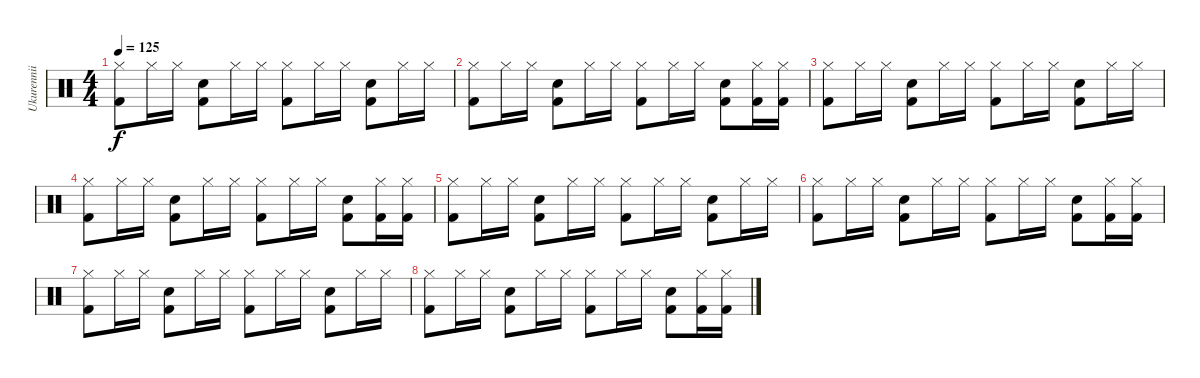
\track ("Ukurennii Drums" "Ukurennii ") {instrument percussion}
\staff {score}
\articulation defaults
\ts (4 4)
\tempo 125
\clef neutral
\ks c
("Kick (hit) 2" "Hi-Hat (closed)").8{dy f} "Hi-Hat (closed)".16 "Hi-Hat (closed)".16 ("Kick (hit) 2" "Snare (hit) 2").8 "Hi-Hat (closed)".16 "Hi-Hat (closed)".16 ("Hi-Hat (closed)" "Kick (hit) 2").8 "Hi-Hat (closed)".16 "Hi-Hat (closed)".16 ("Snare (hit) 2" "Kick (hit) 2").8 "Hi-Hat (closed)".16 "Hi-Hat (closed)".16 |
("Hi-Hat (closed)" "Kick (hit) 2").8 "Hi-Hat (closed)".16 "Hi-Hat (closed)".16 ("Snare (hit) 2" "Kick (hit) 2").8 "Hi-Hat (closed)".16 "Hi-Hat (closed)".16 ("Kick (hit) 2" "Hi-Hat (closed)").8 "Hi-Hat (closed)".16 "Hi-Hat (closed)".16 ("Snare (hit) 2" "Kick (hit) 2").8 ("Kick (hit) 2" "Hi-Hat (closed)").16 ("Hi-Hat (closed)" "Kick (hit) 2").16 |
("Kick (hit) 2" "Hi-Hat (closed)").8 "Hi-Hat (closed)".16 "Hi-Hat (closed)".16 ("Snare (hit) 2" "Kick (hit) 2").8 "Hi-Hat (closed)".16 "Hi-Hat (closed)".16 ("Kick (hit) 2" "Hi-Hat (closed)").8 "Hi-Hat (closed)".16 "Hi-Hat (closed)".16 ("Kick (hit) 2" "Snare (hit) 2").8 "Hi-Hat (closed)".16 "Hi-Hat (closed)".16 |
("Hi-Hat (closed)" "Kick (hit) 2").8 "Hi-Hat (closed)".16 "Hi-Hat (closed)".16 ("Snare (hit) 2" "Kick (hit) 2").8 "Hi-Hat (closed)".16 "Hi-Hat (closed)".16 ("Kick (hit) 2" "Hi-Hat (closed)").8 "Hi-Hat (closed)".16 "Hi-Hat (closed)".16 ("Kick (hit) 2" "Snare (hit) 2").8 ("Kick (hit) 2" "Hi-Hat (closed)").16 ("Hi-Hat (closed)" "Kick (hit) 2").16 |
("Kick (hit) 2" "Hi-Hat (closed)").8 "Hi-Hat (closed)".16 "Hi-Hat (closed)".16 ("Kick (hit) 2" "Snare (hit) 2").8 "Hi-Hat (closed)".16 "Hi-Hat (closed)".16 ("Hi-Hat (closed)" "Kick (hit) 2").8 "Hi-Hat (closed)".16 "Hi-Hat (closed)".16 ("Snare (hit) 2" "Kick (hit) 2").8 "Hi-Hat (closed)".16 "Hi-Hat (closed)".16 |
("Hi-Hat (closed)" "Kick (hit) 2").8 "Hi-Hat (closed)".16 "Hi-Hat (closed)".16 ("Snare (hit) 2" "Kick (hit) 2").8 "Hi-Hat (closed)".16 "Hi-Hat (closed)".16 ("Kick (hit) 2" "Hi-Hat (closed)").8 "Hi-Hat (closed)".16 "Hi-Hat (closed)".16 ("Snare (hit) 2" "Kick (hit) 2").8 ("Kick (hit) 2" "Hi-Hat (closed)").16 ("Hi-Hat (closed)" "Kick (hit) 2").16 |
("Kick (hit) 2" "Hi-Hat (closed)").8 "Hi-Hat (closed)".16 "Hi-Hat (closed)".16 ("Snare (hit) 2" "Kick (hit) 2").8 "Hi-Hat (closed)".16 "Hi-Hat (closed)".16 ("Kick (hit) 2" "Hi-Hat (closed)").8 "Hi-Hat (closed)".16 "Hi-Hat (closed)".16 ("Kick (hit) 2" "Snare (hit) 2").8 "Hi-Hat (closed)".16 "Hi-Hat (closed)".16 |
("Hi-Hat (closed)" "Kick (hit) 2").8 "Hi-Hat (closed)".16 "Hi-Hat (closed)".16 ("Snare (hit) 2" "Kick (hit) 2").8 "Hi-Hat (closed)".16 "Hi-Hat (closed)".16 ("Kick (hit) 2" "Hi-Hat (closed)").8 "Hi-Hat (closed)".16 "Hi-Hat (closed)".16 ("Kick (hit) 2" "Snare (hit) 2").8 ("Kick (hit) 2" "Hi-Hat (closed)").16 ("Hi-Hat (closed)" "Kick (hit) 2").16
